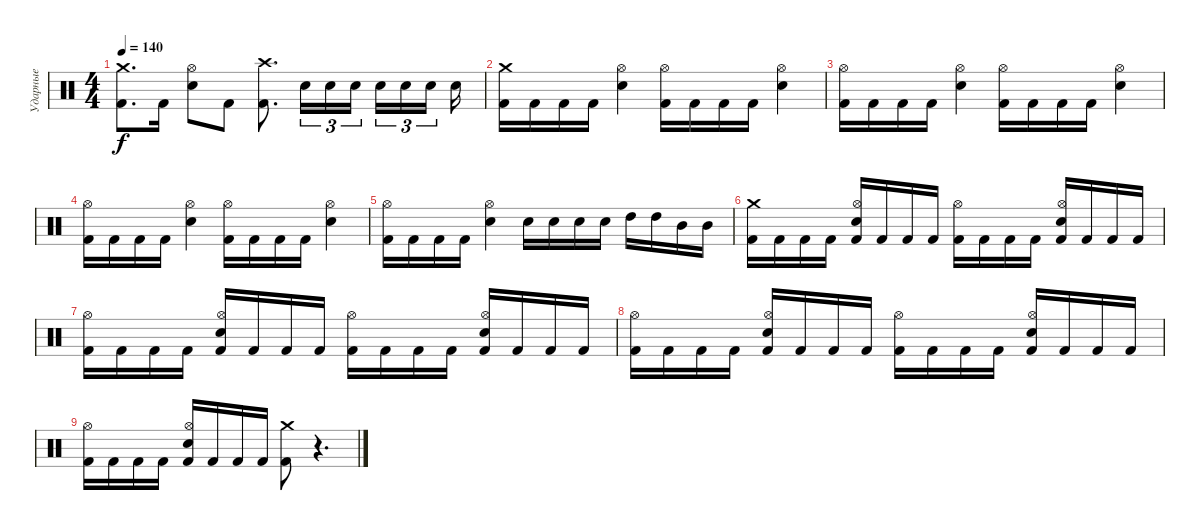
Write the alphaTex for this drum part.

\track ("Ударные" "Ударные") {instrument percussion}
\staff {score}
\articulation defaults
\ts (4 4)
\tempo 140
\clef neutral
\ks c
("Crash medium (hit)" "Kick (hit) 2").8{d dy f} "Kick (hit) 2".16 ("Hi-Hat (open)" "Electric Snare (hit)").8 "Kick (hit) 2".8 ("Crash high (hit)" "Kick (hit) 2").8{d} "Electric Snare (hit)".16{tu (3 2)} "Electric Snare (hit)".16{tu (3 2)} "Electric Snare (hit)".16{tu (3 2) beam splitsecondary} "Electric Snare (hit)".16{tu (3 2)} "Electric Snare (hit)".16{tu (3 2)} "Electric Snare (hit)".16{tu (3 2) beam splitsecondary} "Electric Snare (hit)".16 |
("Crash medium (hit)" "Kick (hit) 2").16 "Kick (hit) 2".16 "Kick (hit) 2".16 "Kick (hit) 2".16 ("Hi-Hat (open)" "Electric Snare (hit)").4 ("Hi-Hat (open)" "Kick (hit) 2").16 "Kick (hit) 2".16 "Kick (hit) 2".16 "Kick (hit) 2".16 ("Hi-Hat (open)" "Electric Snare (hit)").4 |
("Hi-Hat (open)" "Kick (hit) 2").16 "Kick (hit) 2".16 "Kick (hit) 2".16 "Kick (hit) 2".16 ("Hi-Hat (open)" "Electric Snare (hit)").4 ("Hi-Hat (open)" "Kick (hit) 2").16 "Kick (hit) 2".16 "Kick (hit) 2".16 "Kick (hit) 2".16 ("Hi-Hat (open)" "Electric Snare (hit)").4 |
("Hi-Hat (open)" "Kick (hit) 2").16 "Kick (hit) 2".16 "Kick (hit) 2".16 "Kick (hit) 2".16 ("Hi-Hat (open)" "Electric Snare (hit)").4 ("Hi-Hat (open)" "Kick (hit) 2").16 "Kick (hit) 2".16 "Kick (hit) 2".16 "Kick (hit) 2".16 ("Hi-Hat (open)" "Electric Snare (hit)").4 |
("Hi-Hat (open)" "Kick (hit) 2").16 "Kick (hit) 2".16 "Kick (hit) 2".16 "Kick (hit) 2".16 ("Hi-Hat (open)" "Electric Snare (hit)").4 "Electric Snare (hit)".16 "Electric Snare (hit)".16 "Electric Snare (hit)".16 "Electric Snare (hit)".16 "High Tom (hit)".16 "High Tom (hit)".16 "Mid Tom (hit)".16 "Mid Tom (hit)".16 |
("Crash medium (hit)" "Kick (hit) 2").16 "Kick (hit) 2".16 "Kick (hit) 2".16 "Kick (hit) 2".16 ("Hi-Hat (open)" "Electric Snare (hit)" "Kick (hit) 2").16 "Kick (hit) 2".16 "Kick (hit) 2".16 "Kick (hit) 2".16 ("Hi-Hat (open)" "Kick (hit) 2").16 "Kick (hit) 2".16 "Kick (hit) 2".16 "Kick (hit) 2".16 ("Hi-Hat (open)" "Electric Snare (hit)" "Kick (hit) 2").16 "Kick (hit) 2".16 "Kick (hit) 2".16 "Kick (hit) 2".16 |
("Hi-Hat (open)" "Kick (hit) 2").16 "Kick (hit) 2".16 "Kick (hit) 2".16 "Kick (hit) 2".16 ("Hi-Hat (open)" "Electric Snare (hit)" "Kick (hit) 2").16 "Kick (hit) 2".16 "Kick (hit) 2".16 "Kick (hit) 2".16 ("Hi-Hat (open)" "Kick (hit) 2").16 "Kick (hit) 2".16 "Kick (hit) 2".16 "Kick (hit) 2".16 ("Hi-Hat (open)" "Electric Snare (hit)" "Kick (hit) 2").16 "Kick (hit) 2".16 "Kick (hit) 2".16 "Kick (hit) 2".16 |
("Hi-Hat (open)" "Kick (hit) 2").16 "Kick (hit) 2".16 "Kick (hit) 2".16 "Kick (hit) 2".16 ("Hi-Hat (open)" "Electric Snare (hit)" "Kick (hit) 2").16 "Kick (hit) 2".16 "Kick (hit) 2".16 "Kick (hit) 2".16 ("Hi-Hat (open)" "Kick (hit) 2").16 "Kick (hit) 2".16 "Kick (hit) 2".16 "Kick (hit) 2".16 ("Hi-Hat (open)" "Electric Snare (hit)" "Kick (hit) 2").16 "Kick (hit) 2".16 "Kick (hit) 2".16 "Kick (hit) 2".16 |
("Hi-Hat (open)" "Kick (hit) 2").16 "Kick (hit) 2".16 "Kick (hit) 2".16 "Kick (hit) 2".16 ("Hi-Hat (open)" "Electric Snare (hit)" "Kick (hit) 2").16 "Kick (hit) 2".16 "Kick (hit) 2".16 "Kick (hit) 2".16 ("Crash medium (hit)" "Kick (hit) 2").8 r.4{d}
